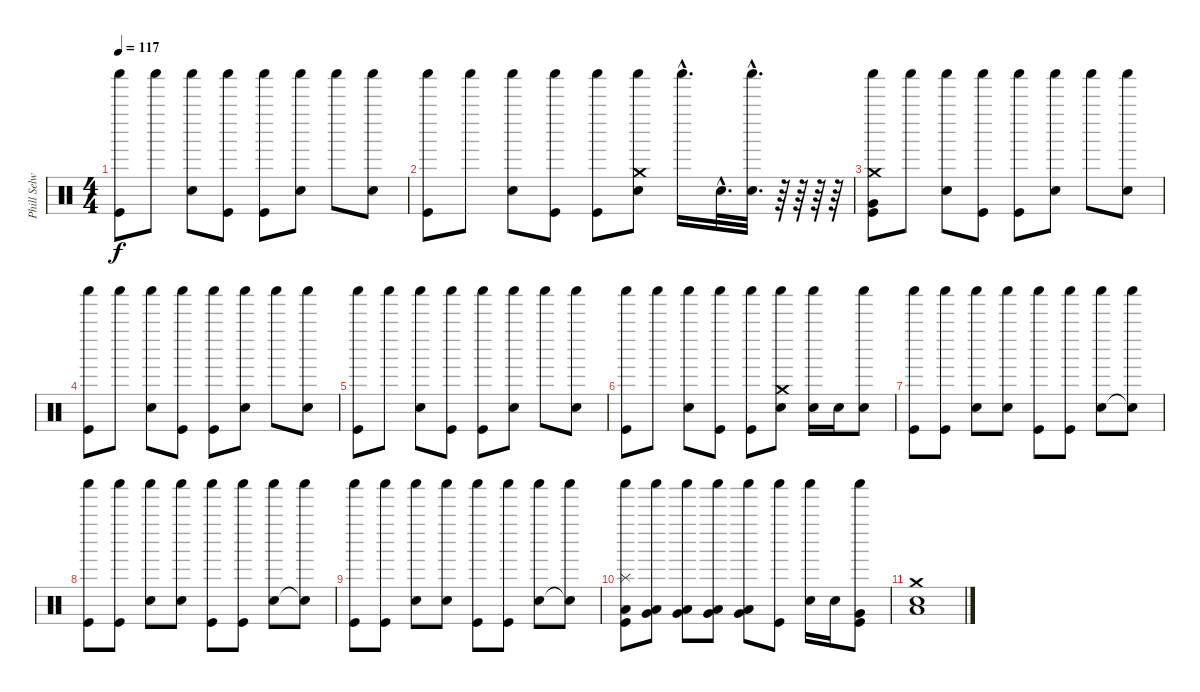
\track ("Phill Selway" "Phill Selw") {instrument percussion}
\staff {score}
\articulation defaults
\ts (4 4)
\tempo 117
\clef neutral
\ks c
("Shaker (hit)" "Kick (hit)").8{dy f} "Shaker (hit)".8 ("Shaker (hit)" "Snare (hit) 2").8 ("Shaker (hit)" "Kick (hit)").8 ("Shaker (hit)" "Kick (hit)").8 ("Shaker (hit)" "Snare (hit) 2").8 "Shaker (hit)".8 ("Shaker (hit)" "Snare (hit) 2").8 |
("Shaker (hit)" "Kick (hit)").8 "Shaker (hit)".8 ("Shaker (hit)" "Snare (hit) 2").8 ("Shaker (hit)" "Kick (hit)").8 ("Shaker (hit)" "Kick (hit)").8 ("Shaker (hit)" "Crash medium (hit)" "Snare (hit) 2").8 "Shaker (hit)"{hac}.16{d} "Snare (hit) 2"{hac}.32{d} ("Shaker (hit)"{hac} "Snare (hit) 2"{hac}).32{d} r.64 r.64 r.64 r.64 |
("Shaker (hit)" "Crash medium (hit)" "Kick (hit)" "Very Low Tom (hit)").8 "Shaker (hit)".8 ("Shaker (hit)" "Snare (hit) 2").8 ("Shaker (hit)" "Kick (hit)").8 ("Shaker (hit)" "Kick (hit)").8 ("Shaker (hit)" "Snare (hit) 2").8 "Shaker (hit)".8 ("Shaker (hit)" "Snare (hit) 2").8 |
("Shaker (hit)" "Kick (hit)").8 "Shaker (hit)".8 ("Shaker (hit)" "Snare (hit) 2").8 ("Shaker (hit)" "Kick (hit)").8 ("Shaker (hit)" "Kick (hit)").8 ("Shaker (hit)" "Snare (hit) 2").8 "Shaker (hit)".8 ("Shaker (hit)" "Snare (hit) 2").8 |
("Shaker (hit)" "Kick (hit)").8 "Shaker (hit)".8 ("Shaker (hit)" "Snare (hit) 2").8 ("Shaker (hit)" "Kick (hit)").8 ("Shaker (hit)" "Kick (hit)").8 ("Shaker (hit)" "Snare (hit) 2").8 "Shaker (hit)".8 ("Shaker (hit)" "Snare (hit) 2").8 |
("Shaker (hit)" "Kick (hit)").8 "Shaker (hit)".8 ("Shaker (hit)" "Snare (hit) 2").8 ("Shaker (hit)" "Kick (hit)").8 ("Shaker (hit)" "Kick (hit)").8 ("Shaker (hit)" "Crash medium (hit)" "Snare (hit) 2").8 ("Shaker (hit)" "Snare (hit) 2").16 "Snare (hit) 2".16 ("Shaker (hit)" "Snare (hit) 2").8 |
("Shaker (hit)" "Kick (hit)").8 ("Shaker (hit)" "Kick (hit)").8 ("Shaker (hit)" "Snare (hit) 2").8 ("Shaker (hit)" "Snare (hit) 2").8 ("Shaker (hit)" "Kick (hit)").8 ("Shaker (hit)" "Kick (hit)").8 ("Shaker (hit)" "Snare (hit) 2").8 ("Shaker (hit)" "Snare (hit)"{t}).8 |
("Shaker (hit)" "Kick (hit)").8 ("Shaker (hit)" "Kick (hit)").8 ("Shaker (hit)" "Snare (hit) 2").8 ("Shaker (hit)" "Snare (hit) 2").8 ("Shaker (hit)" "Kick (hit)").8 ("Shaker (hit)" "Kick (hit)").8 ("Shaker (hit)" "Snare (hit) 2").8 ("Shaker (hit)" "Snare (hit)"{t}).8 |
("Shaker (hit)" "Kick (hit)").8 ("Shaker (hit)" "Kick (hit)").8 ("Shaker (hit)" "Snare (hit) 2").8 ("Shaker (hit)" "Snare (hit) 2").8 ("Shaker (hit)" "Kick (hit)").8 ("Shaker (hit)" "Kick (hit)").8 ("Shaker (hit)" "Snare (hit) 2").8 ("Shaker (hit)" "Snare (hit)"{t}).8 |
("Shaker (hit)" "Splash (hit)" "Kick (hit)" "Low Tom (hit)").8 ("Shaker (hit)" "Very Low Tom (hit)" "Low Tom (hit)").8 ("Shaker (hit)" "Very Low Tom (hit)" "Low Tom (hit)").8 ("Shaker (hit)" "Very Low Tom (hit)" "Low Tom (hit)").8 ("Shaker (hit)" "Very Low Tom (hit)" "Low Tom (hit)").8 ("Shaker (hit)" "Kick (hit)").8 ("Shaker (hit)" "Snare (hit) 2").16 "Snare (hit) 2".16 ("Shaker (hit)" "Kick (hit)" "Very Low Tom (hit)").8 |
("Crash medium (hit)" "Snare (hit) 2" "Low Tom (hit)").1
